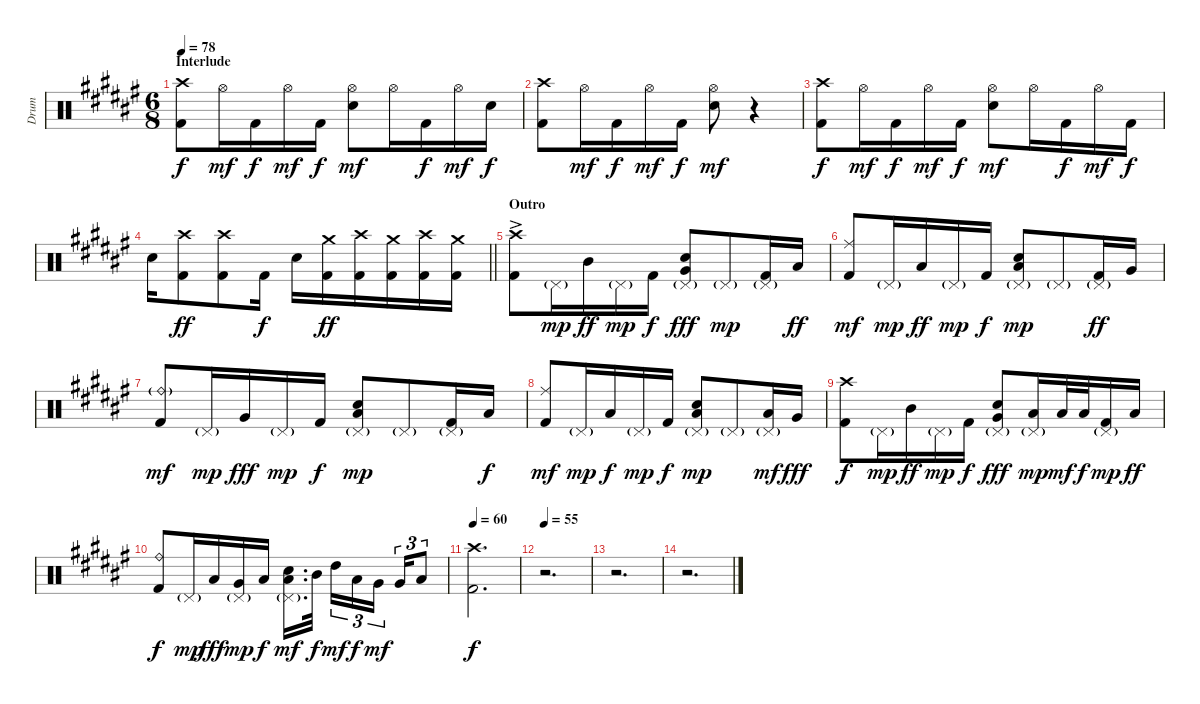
\track ("Drum" "Drum") {instrument percussion}
\staff {score}
\articulation defaults
\ts (6 8)
\section ("" "Interlude")
\tempo 78
\clef neutral
\ks d#minor
("Crash high (hit)" "Kick (hit) 2").8{dy f} "Hi-Hat (open)".16{dy mf} "Kick (hit) 2".16{dy f} "Hi-Hat (open)".16{dy mf} "Kick (hit) 2".16{dy f} ("Hi-Hat (open)" "Electric Snare (hit)").8{dy mf} "Hi-Hat (open)".16 "Kick (hit) 2".16{dy f} "Hi-Hat (open)".16{dy mf} "Electric Snare (hit)".16{dy f} |
("Crash high (hit)" "Kick (hit) 2").8 "Hi-Hat (open)".16{dy mf} "Kick (hit) 2".16{dy f} "Hi-Hat (open)".16{dy mf} "Kick (hit) 2".16{dy f} ("Hi-Hat (open)" "Electric Snare (hit)").8{dy mf} r.4 |
("Crash high (hit)" "Kick (hit) 2").8{dy f} "Hi-Hat (open)".16{dy mf} "Kick (hit) 2".16{dy f} "Hi-Hat (open)".16{dy mf} "Kick (hit) 2".16{dy f} ("Hi-Hat (open)" "Electric Snare (hit)").8{dy mf} "Hi-Hat (open)".16 "Kick (hit) 2".16{dy f} "Hi-Hat (open)".16{dy mf} "Kick (hit) 2".16{dy f} |
\barLineRight lightlight "Electric Snare (hit)".16
("Crash high (hit)" "Kick (hit) 2").8{dy ff} ("Crash high (hit)" "Kick (hit) 2").8 "Kick (hit) 2".16{dy f} "Electric Snare (hit)".16 ("Crash medium (hit)" "Kick (hit) 2").16{dy ff} ("Crash high (hit)" "Kick (hit) 2").16 ("Crash medium (hit)" "Kick (hit) 2").16 ("Crash high (hit)" "Kick (hit) 2").16 ("Crash medium (hit)" "Kick (hit) 2").16 |
\section ("" "Outro")
("Crash high (hit)"{ac} "Kick (hit) 2").8 "Pedal Hi-Hat (hit)"{g}.16{dy mp} "Mid Tom (hit)".16{dy ff} "Pedal Hi-Hat (hit)"{g}.16{dy mp} "Kick (hit) 2".16{dy f} ("Pedal Hi-Hat (hit)"{g} "Very Low Tom (hit)" "Electric Snare (hit)").8{dy fff} "Pedal Hi-Hat (hit)"{g}.8{dy mp} ("Pedal Hi-Hat (hit)"{g} "Kick (hit) 2").16 "Low Tom (hit)".16{dy ff} |
("Ride (middle)" "Kick (hit) 2").8{dy mf} "Pedal Hi-Hat (hit)"{g}.16{dy mp} "Low Tom (hit)".16{dy ff} "Pedal Hi-Hat (hit)"{g}.16{dy mp} "Kick (hit) 2".16{dy f} ("Pedal Hi-Hat (hit)"{g} "Low Floor Tom (hit)" "Electric Snare (hit)").8{dy mp} "Pedal Hi-Hat (hit)"{g}.8 ("Pedal Hi-Hat (hit)"{g} "Kick (hit) 2").16{dy ff} "Very Low Tom (hit)".16 |
("Ride (bell)"{g} "Kick (hit) 2").8{dy mf} "Pedal Hi-Hat (hit)"{g}.16{dy mp} "Very Low Tom (hit)".16{dy fff} "Pedal Hi-Hat (hit)"{g}.16{dy mp} "Kick (hit) 2".16{dy f} ("Pedal Hi-Hat (hit)"{g} "Low Floor Tom (hit)" "Electric Snare (hit)").8{dy mp} "Pedal Hi-Hat (hit)"{g}.8 ("Pedal Hi-Hat (hit)"{g} "Kick (hit) 2").16 "Low Floor Tom (hit)".16{dy f} |
("Ride (middle)" "Kick (hit) 2").8{dy mf} "Pedal Hi-Hat (hit)"{g}.16{dy mp} "Low Tom (hit)".16{dy f} "Pedal Hi-Hat (hit)"{g}.16{dy mp} "Kick (hit) 2".16{dy f} ("Pedal Hi-Hat (hit)"{g} "Low Floor Tom (hit)" "Electric Snare (hit)").8{dy mp} "Pedal Hi-Hat (hit)"{g}.8 ("Pedal Hi-Hat (hit)"{g} "Low Floor Tom (hit)").16{dy mf} "Very Low Tom (hit)".16{dy fff} |
("Crash high (hit)" "Kick (hit) 2").8{dy f} "Pedal Hi-Hat (hit)"{g}.16{dy mp} "Mid Tom (hit)".16{dy ff} "Pedal Hi-Hat (hit)"{g}.16{dy mp} "Kick (hit) 2".16{dy f} ("Pedal Hi-Hat (hit)"{g} "Very Low Tom (hit)" "Electric Snare (hit)").8{dy fff} ("Pedal Hi-Hat (hit)"{g} "Low Floor Tom (hit)").16{dy mp} "Low Floor Tom (hit)".32{dy mf} "Low Floor Tom (hit)".32{dy f} ("Pedal Hi-Hat (hit)"{g} "Kick (hit) 2").16{dy mp} "Low Tom (hit)".16{dy ff} |
("Ride (bell)" "Kick (hit) 2").8{dy f} "Pedal Hi-Hat (hit)"{g}.16{dy mp} "Low Tom (hit)".16{dy fff} ("Pedal Hi-Hat (hit)"{g} "Very Low Tom (hit)").16{dy mp} "Low Floor Tom (hit)".16{dy f} ("Pedal Hi-Hat (hit)"{g} "Low Floor Tom (hit)" "Electric Snare (hit)").16{d dy mf} "Mid Tom (hit)".32{dy f beam splitsecondary} "High Tom (hit)".16{tu (3 2) dy mf} "Low Tom (hit)".16{tu (3 2) dy f} "Very Low Tom (hit)".16{tu (3 2) dy mf beam splitsecondary} "Very Low Tom (hit)".16{tu (3 2)} "Low Floor Tom (hit)".8{tu (3 2)} |
\tempo 60
("Crash high (hit)" "Kick (hit) 2").2{d dy f} |
\tempo 55
r.2{d} |
r.2{d} |
r.2{d}
